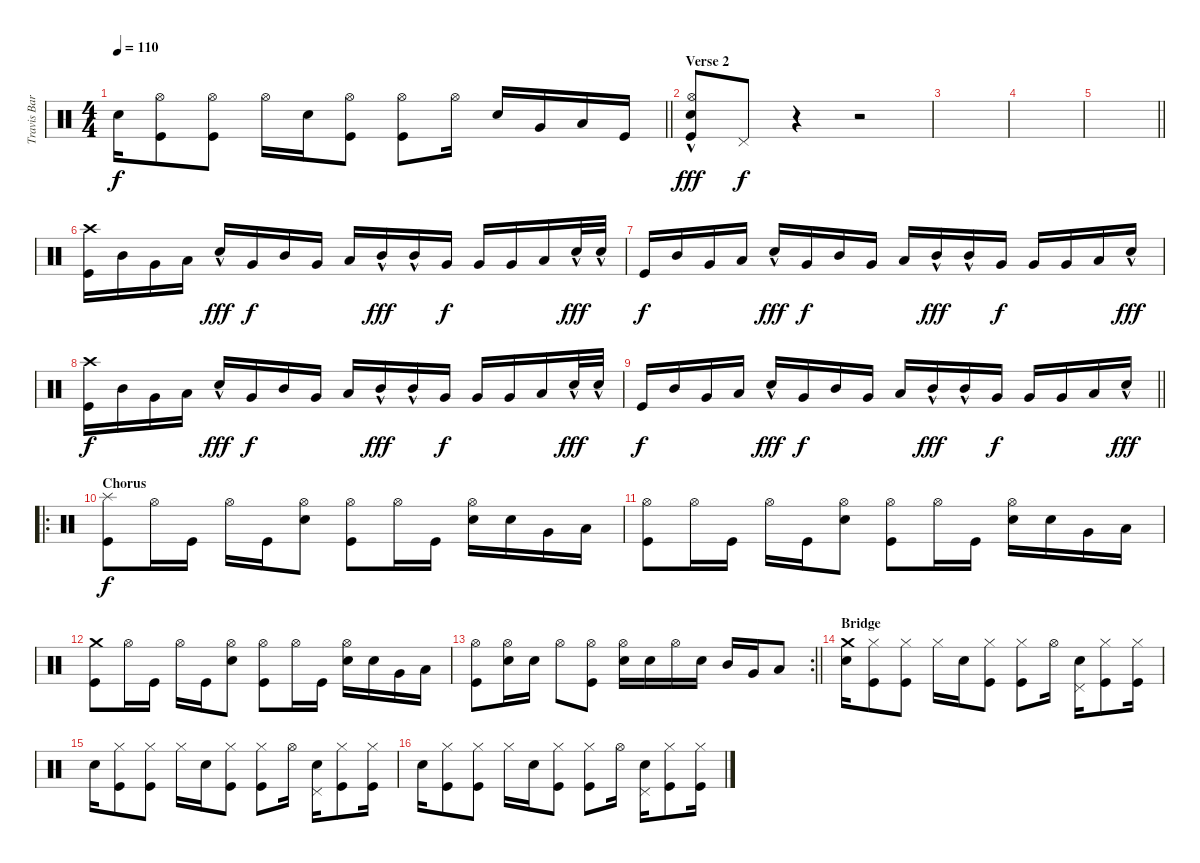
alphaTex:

\track ("Travis Barker (Drums)" "Travis Bar") {instrument percussion bank 10}
\staff {score}
\articulation defaults
\ts (4 4)
\tempo 110
\clef neutral
\barLineRight lightlight
\ks c "Snare (hit) 2".16{dy f}
("Hi-Hat (open)" "Kick (hit)").8 ("Hi-Hat (open)" "Kick (hit)").8 "Hi-Hat (open)".16 "Snare (hit) 2".16 ("Hi-Hat (open)" "Kick (hit)").8 ("Hi-Hat (open)" "Kick (hit)").8 "Hi-Hat (open)".16 "Snare (hit) 2".16 "Very Low Tom (hit)".16 "Low Floor Tom (hit)".16 "Kick (hit)".16 |
\section ("" "Verse 2")
("Hi-Hat (open)" "Snare (hit) 2"{hac} "Kick (hit)").8{dy fff} "Pedal Hi-Hat (hit)".8{dy f} r.4 r.2 |
|
|
\barLineRight lightlight
|
("Crash high (hit)" "Kick (hit)").16 "Mid Tom (hit)".16 "Very Low Tom (hit)".16 "Low Floor Tom (hit)".16 "Snare (hit) 2"{hac}.16{dy fff} "Very Low Tom (hit)".16{dy f} "Mid Tom (hit)".16 "Very Low Tom (hit)".16 "Low Floor Tom (hit)".16 "Mid Tom (hit)"{hac}.16{dy fff} "Mid Tom (hit)"{hac}.16 "Very Low Tom (hit)".16{dy f} "Very Low Tom (hit)".16 "Very Low Tom (hit)".16 "Low Floor Tom (hit)".16 "Snare (hit) 2"{hac}.32{dy fff} "Snare (hit) 2"{hac}.32 |
"Kick (hit)".16{dy f} "Mid Tom (hit)".16 "Very Low Tom (hit)".16 "Low Floor Tom (hit)".16 "Snare (hit) 2"{hac}.16{dy fff} "Very Low Tom (hit)".16{dy f} "Mid Tom (hit)".16 "Very Low Tom (hit)".16 "Low Floor Tom (hit)".16 "Mid Tom (hit)"{hac}.16{dy fff} "Mid Tom (hit)"{hac}.16 "Very Low Tom (hit)".16{dy f} "Very Low Tom (hit)".16 "Very Low Tom (hit)".16 "Low Floor Tom (hit)".16 "Snare (hit) 2"{hac}.16{dy fff} |
("Crash high (hit)" "Kick (hit)").16{dy f} "Mid Tom (hit)".16 "Very Low Tom (hit)".16 "Low Floor Tom (hit)".16 "Snare (hit) 2"{hac}.16{dy fff} "Very Low Tom (hit)".16{dy f} "Mid Tom (hit)".16 "Very Low Tom (hit)".16 "Low Floor Tom (hit)".16 "Mid Tom (hit)"{hac}.16{dy fff} "Mid Tom (hit)"{hac}.16 "Very Low Tom (hit)".16{dy f} "Very Low Tom (hit)".16 "Very Low Tom (hit)".16 "Low Floor Tom (hit)".16 "Snare (hit) 2"{hac}.32{dy fff} "Snare (hit) 2"{hac}.32 |
\barLineRight lightlight "Kick (hit)".16{dy f} "Mid Tom (hit)".16 "Very Low Tom (hit)".16 "Low Floor Tom (hit)".16 "Snare (hit) 2"{hac}.16{dy fff} "Very Low Tom (hit)".16{dy f} "Mid Tom (hit)".16 "Very Low Tom (hit)".16 "Low Floor Tom (hit)".16 "Mid Tom (hit)"{hac}.16{dy fff} "Mid Tom (hit)"{hac}.16 "Very Low Tom (hit)".16{dy f} "Very Low Tom (hit)".16 "Very Low Tom (hit)".16 "Low Floor Tom (hit)".16 "Snare (hit) 2"{hac}.16{dy fff}
|
\ro
\section ("" "Chorus")
("Splash (hit)" "Kick (hit)").8{dy f} "Hi-Hat (open)".16 "Kick (hit)".16 "Hi-Hat (open)".16 "Kick (hit)".16 ("Hi-Hat (open)" "Snare (hit) 2").8 ("Hi-Hat (open)" "Kick (hit)").8 "Hi-Hat (open)".16 "Kick (hit)".16 ("Hi-Hat (open)" "Snare (hit) 2").16 "Snare (hit) 2".16 "Very Low Tom (hit)".16 "Low Floor Tom (hit)".16 |
("Hi-Hat (open)" "Kick (hit)").8 "Hi-Hat (open)".16 "Kick (hit)".16 "Hi-Hat (open)".16 "Kick (hit)".16 ("Hi-Hat (open)" "Snare (hit) 2").8 ("Hi-Hat (open)" "Kick (hit)").8 "Hi-Hat (open)".16 "Kick (hit)".16 ("Hi-Hat (open)" "Snare (hit) 2").16 "Snare (hit) 2".16 "Very Low Tom (hit)".16 "Low Floor Tom (hit)".16 |
("Crash medium (hit)" "Kick (hit)").8 "Hi-Hat (open)".16 "Kick (hit)".16 "Hi-Hat (open)".16 "Kick (hit)".16 ("Hi-Hat (open)" "Snare (hit) 2").8 ("Hi-Hat (open)" "Kick (hit)").8 "Hi-Hat (open)".16 "Kick (hit)".16 ("Hi-Hat (open)" "Snare (hit) 2").16 "Snare (hit) 2".16 "Very Low Tom (hit)".16 "Low Floor Tom (hit)".16 |
\rc 2
\barLineRight lightlight
("Hi-Hat (open)" "Kick (hit)").8 ("Hi-Hat (open)" "Snare (hit) 2").16 "Snare (hit) 2".16 "Hi-Hat (open)".8 ("Hi-Hat (open)" "Kick (hit)").8 ("Hi-Hat (open)" "Snare (hit) 2").16 "Snare (hit) 2".16 "Hi-Hat (open)".16 "Snare (hit) 2".16 "Mid Tom (hit)".16 "Very Low Tom (hit)".16 "Low Floor Tom (hit)".8 |
\section ("" "Bridge")
("Crash medium (hit)" "Snare (hit) 2").16 ("Hi-Hat (closed)" "Kick (hit)").8 ("Hi-Hat (closed)" "Kick (hit)").8 "Hi-Hat (closed)".16 "Snare (hit) 2".16 ("Hi-Hat (closed)" "Kick (hit)").8 ("Hi-Hat (closed)" "Kick (hit)").8 "Hi-Hat (open)".16 ("Pedal Hi-Hat (hit)" "Snare (hit) 2").16 ("Hi-Hat (closed)" "Kick (hit)").8 ("Hi-Hat (closed)" "Kick (hit)").16 |
"Snare (hit) 2".16 ("Hi-Hat (closed)" "Kick (hit)").8 ("Hi-Hat (closed)" "Kick (hit)").8 "Hi-Hat (closed)".16 "Snare (hit) 2".16 ("Hi-Hat (closed)" "Kick (hit)").8 ("Hi-Hat (closed)" "Kick (hit)").8 "Hi-Hat (open)".16 ("Pedal Hi-Hat (hit)" "Snare (hit) 2").16 ("Hi-Hat (closed)" "Kick (hit)").8 ("Hi-Hat (closed)" "Kick (hit)").16 |
"Snare (hit) 2".16 ("Hi-Hat (closed)" "Kick (hit)").8 ("Hi-Hat (closed)" "Kick (hit)").8 "Hi-Hat (closed)".16 "Snare (hit) 2".16 ("Hi-Hat (closed)" "Kick (hit)").8 ("Hi-Hat (closed)" "Kick (hit)").8 "Hi-Hat (open)".16 ("Pedal Hi-Hat (hit)" "Snare (hit) 2").16 ("Hi-Hat (closed)" "Kick (hit)").8 ("Hi-Hat (closed)" "Kick (hit)").16
